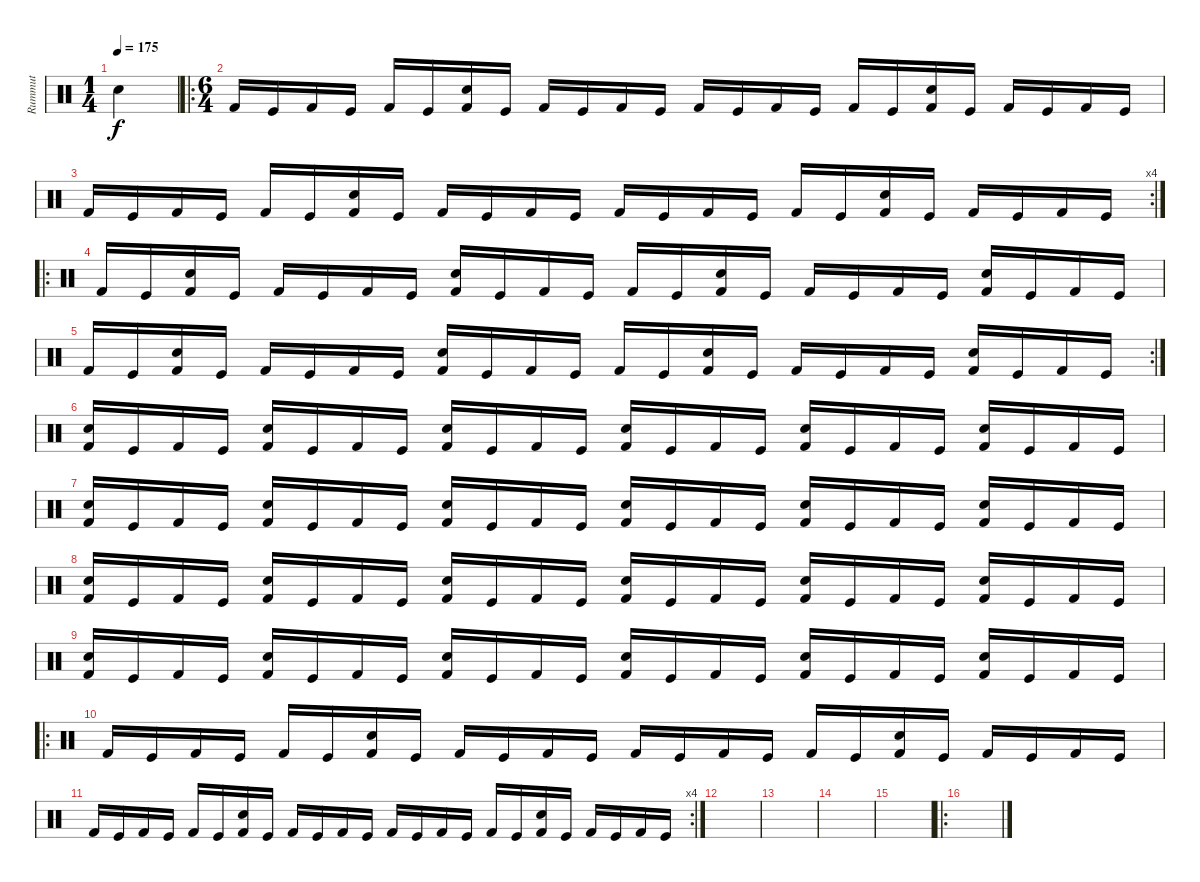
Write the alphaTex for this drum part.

\track ("Rummut" "Rummut") {instrument percussion}
\staff {score}
\articulation defaults
\ts (1 4)
\tempo 175
\clef neutral
\ks c "Snare (hit) 2".4{dy f}
|
\ro
\ts (6 4)
"Kick (hit) 2".16 "Kick (hit)".16 "Kick (hit) 2".16 "Kick (hit)".16 "Kick (hit) 2".16 "Kick (hit)".16 ("Snare (hit) 2" "Kick (hit) 2").16 "Kick (hit)".16 "Kick (hit) 2".16 "Kick (hit)".16 "Kick (hit) 2".16 "Kick (hit)".16 "Kick (hit) 2".16 "Kick (hit)".16 "Kick (hit) 2".16 "Kick (hit)".16 "Kick (hit) 2".16 "Kick (hit)".16 ("Snare (hit) 2" "Kick (hit) 2").16 "Kick (hit)".16 "Kick (hit) 2".16 "Kick (hit)".16 "Kick (hit) 2".16 "Kick (hit)".16 |
\rc 4 "Kick (hit) 2".16 "Kick (hit)".16 "Kick (hit) 2".16 "Kick (hit)".16 "Kick (hit) 2".16 "Kick (hit)".16
("Snare (hit) 2" "Kick (hit) 2").16 "Kick (hit)".16 "Kick (hit) 2".16 "Kick (hit)".16 "Kick (hit) 2".16 "Kick (hit)".16 "Kick (hit) 2".16 "Kick (hit)".16 "Kick (hit) 2".16 "Kick (hit)".16 "Kick (hit) 2".16 "Kick (hit)".16 ("Snare (hit) 2" "Kick (hit) 2").16 "Kick (hit)".16 "Kick (hit) 2".16 "Kick (hit)".16 "Kick (hit) 2".16 "Kick (hit)".16 |
\ro "Kick (hit) 2".16 "Kick (hit)".16
("Snare (hit) 2" "Kick (hit) 2").16 "Kick (hit)".16 "Kick (hit) 2".16 "Kick (hit)".16 "Kick (hit) 2".16 "Kick (hit)".16 ("Snare (hit) 2" "Kick (hit) 2").16 "Kick (hit)".16 "Kick (hit) 2".16 "Kick (hit)".16 "Kick (hit) 2".16 "Kick (hit)".16 ("Snare (hit) 2" "Kick (hit) 2").16 "Kick (hit)".16 "Kick (hit) 2".16 "Kick (hit)".16 "Kick (hit) 2".16 "Kick (hit)".16 ("Snare (hit) 2" "Kick (hit) 2").16 "Kick (hit)".16 "Kick (hit) 2".16 "Kick (hit)".16 |
\rc 2 "Kick (hit) 2".16 "Kick (hit)".16
("Snare (hit) 2" "Kick (hit) 2").16 "Kick (hit)".16 "Kick (hit) 2".16 "Kick (hit)".16 "Kick (hit) 2".16 "Kick (hit)".16 ("Snare (hit) 2" "Kick (hit) 2").16 "Kick (hit)".16 "Kick (hit) 2".16 "Kick (hit)".16 "Kick (hit) 2".16 "Kick (hit)".16 ("Snare (hit) 2" "Kick (hit) 2").16 "Kick (hit)".16 "Kick (hit) 2".16 "Kick (hit)".16 "Kick (hit) 2".16 "Kick (hit)".16 ("Snare (hit) 2" "Kick (hit) 2").16 "Kick (hit)".16 "Kick (hit) 2".16 "Kick (hit)".16 |
("Snare (hit) 2" "Kick (hit) 2").16 "Kick (hit)".16 "Kick (hit) 2".16 "Kick (hit)".16 ("Snare (hit) 2" "Kick (hit) 2").16 "Kick (hit)".16 "Kick (hit) 2".16 "Kick (hit)".16 ("Snare (hit) 2" "Kick (hit) 2").16 "Kick (hit)".16 "Kick (hit) 2".16 "Kick (hit)".16 ("Snare (hit) 2" "Kick (hit) 2").16 "Kick (hit)".16 "Kick (hit) 2".16 "Kick (hit)".16 ("Snare (hit) 2" "Kick (hit) 2").16 "Kick (hit)".16 "Kick (hit) 2".16 "Kick (hit)".16 ("Snare (hit) 2" "Kick (hit) 2").16 "Kick (hit)".16 "Kick (hit) 2".16 "Kick (hit)".16 |
("Snare (hit) 2" "Kick (hit) 2").16 "Kick (hit)".16 "Kick (hit) 2".16 "Kick (hit)".16 ("Snare (hit) 2" "Kick (hit) 2").16 "Kick (hit)".16 "Kick (hit) 2".16 "Kick (hit)".16 ("Snare (hit) 2" "Kick (hit) 2").16 "Kick (hit)".16 "Kick (hit) 2".16 "Kick (hit)".16 ("Snare (hit) 2" "Kick (hit) 2").16 "Kick (hit)".16 "Kick (hit) 2".16 "Kick (hit)".16 ("Snare (hit) 2" "Kick (hit) 2").16 "Kick (hit)".16 "Kick (hit) 2".16 "Kick (hit)".16 ("Snare (hit) 2" "Kick (hit) 2").16 "Kick (hit)".16 "Kick (hit) 2".16 "Kick (hit)".16 |
("Snare (hit) 2" "Kick (hit) 2").16 "Kick (hit)".16 "Kick (hit) 2".16 "Kick (hit)".16 ("Snare (hit) 2" "Kick (hit) 2").16 "Kick (hit)".16 "Kick (hit) 2".16 "Kick (hit)".16 ("Snare (hit) 2" "Kick (hit) 2").16 "Kick (hit)".16 "Kick (hit) 2".16 "Kick (hit)".16 ("Snare (hit) 2" "Kick (hit) 2").16 "Kick (hit)".16 "Kick (hit) 2".16 "Kick (hit)".16 ("Snare (hit) 2" "Kick (hit) 2").16 "Kick (hit)".16 "Kick (hit) 2".16 "Kick (hit)".16 ("Snare (hit) 2" "Kick (hit) 2").16 "Kick (hit)".16 "Kick (hit) 2".16 "Kick (hit)".16 |
("Snare (hit) 2" "Kick (hit) 2").16 "Kick (hit)".16 "Kick (hit) 2".16 "Kick (hit)".16 ("Snare (hit) 2" "Kick (hit) 2").16 "Kick (hit)".16 "Kick (hit) 2".16 "Kick (hit)".16 ("Snare (hit) 2" "Kick (hit) 2").16 "Kick (hit)".16 "Kick (hit) 2".16 "Kick (hit)".16 ("Snare (hit) 2" "Kick (hit) 2").16 "Kick (hit)".16 "Kick (hit) 2".16 "Kick (hit)".16 ("Snare (hit) 2" "Kick (hit) 2").16 "Kick (hit)".16 "Kick (hit) 2".16 "Kick (hit)".16 ("Snare (hit) 2" "Kick (hit) 2").16 "Kick (hit)".16 "Kick (hit) 2".16 "Kick (hit)".16 |
\ro "Kick (hit) 2".16 "Kick (hit)".16 "Kick (hit) 2".16 "Kick (hit)".16 "Kick (hit) 2".16 "Kick (hit)".16
("Snare (hit) 2" "Kick (hit) 2").16 "Kick (hit)".16 "Kick (hit) 2".16 "Kick (hit)".16 "Kick (hit) 2".16 "Kick (hit)".16 "Kick (hit) 2".16 "Kick (hit)".16 "Kick (hit) 2".16 "Kick (hit)".16 "Kick (hit) 2".16 "Kick (hit)".16 ("Snare (hit) 2" "Kick (hit) 2").16 "Kick (hit)".16 "Kick (hit) 2".16 "Kick (hit)".16 "Kick (hit) 2".16 "Kick (hit)".16 |
\rc 4 "Kick (hit) 2".16 "Kick (hit)".16 "Kick (hit) 2".16 "Kick (hit)".16 "Kick (hit) 2".16 "Kick (hit)".16
("Snare (hit) 2" "Kick (hit) 2").16 "Kick (hit)".16 "Kick (hit) 2".16 "Kick (hit)".16 "Kick (hit) 2".16 "Kick (hit)".16 "Kick (hit) 2".16 "Kick (hit)".16 "Kick (hit) 2".16 "Kick (hit)".16 "Kick (hit) 2".16 "Kick (hit)".16 ("Snare (hit) 2" "Kick (hit) 2").16 "Kick (hit)".16 "Kick (hit) 2".16 "Kick (hit)".16 "Kick (hit) 2".16 "Kick (hit)".16 |
|
|
|
|
\ro
